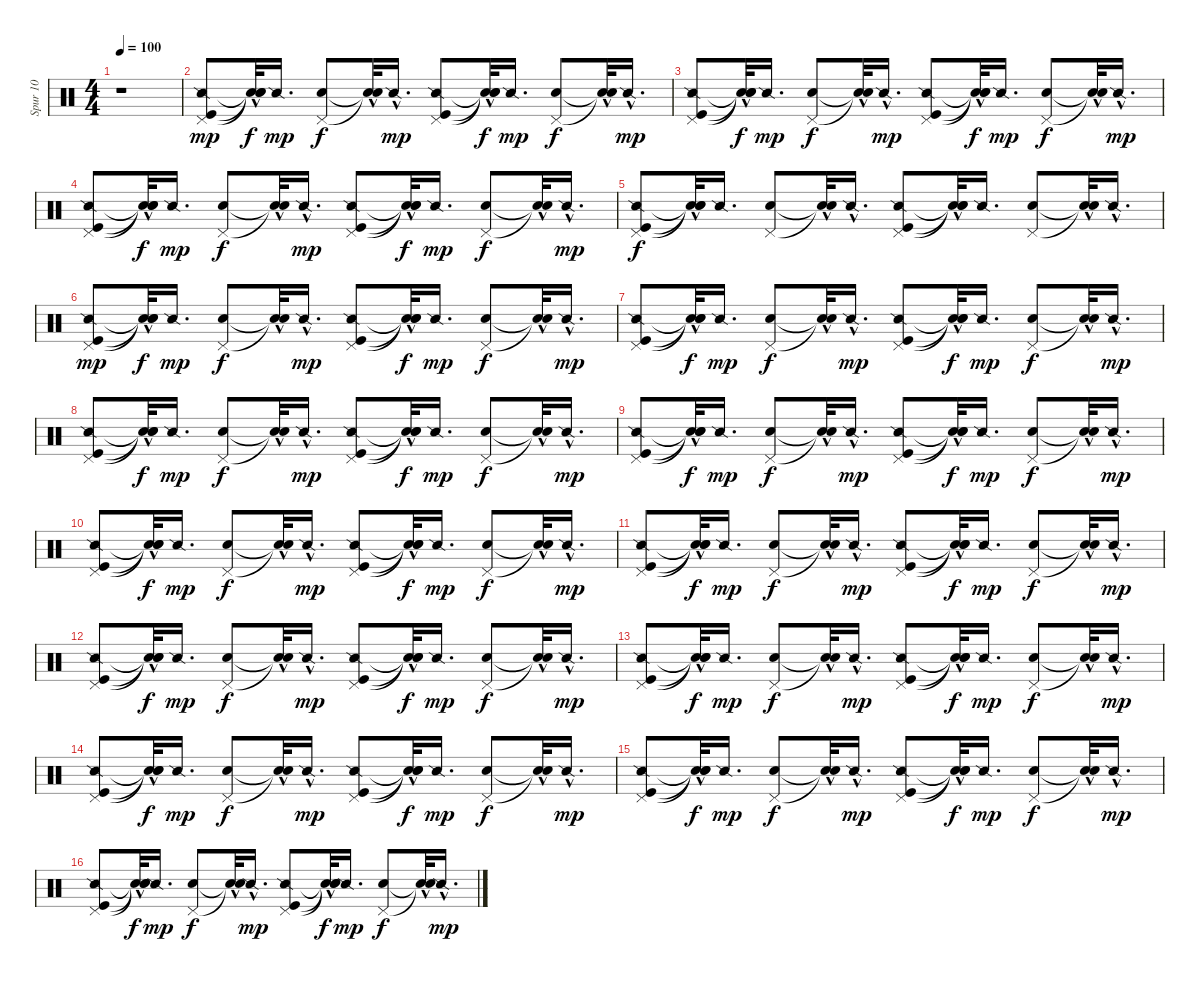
\track ("Spur 10" "Spur 10") {instrument percussion}
\staff {score}
\articulation defaults
\ts (4 4)
\tempo 100
\clef neutral
\ks c
r.1{dy mp} |
("Snare (side stick) 2" "Kick (hit)" "Pedal Hi-Hat (hit)").8{volume 16} ("Snare (hit)"{t} "Snare (hit)"{hac t} "Snare (hit)"{t}).32{dy f} "Snare (side stick) 2".16{d dy mp} ("Electric Snare (hit)" "Pedal Hi-Hat (hit)").8{dy f} ("Snare (hit)"{hac t} "Snare (hit)"{t}).32 "Snare (side stick) 2"{hac}.16{d dy mp} ("Snare (side stick) 2" "Kick (hit)" "Pedal Hi-Hat (hit)").8 ("Snare (hit)"{t} "Snare (hit)"{hac t} "Snare (hit)"{t}).32{dy f} "Snare (side stick) 2".16{d dy mp} ("Electric Snare (hit)" "Pedal Hi-Hat (hit)").8{dy f} ("Snare (hit)"{hac t} "Snare (hit)"{t}).32 "Snare (side stick) 2"{hac}.16{d dy mp} |
("Snare (side stick) 2" "Kick (hit)" "Pedal Hi-Hat (hit)").8 ("Snare (hit)"{t} "Snare (hit)"{hac t} "Snare (hit)"{t}).32{dy f} "Snare (side stick) 2".16{d dy mp} ("Electric Snare (hit)" "Pedal Hi-Hat (hit)").8{dy f} ("Snare (hit)"{hac t} "Snare (hit)"{t}).32 "Snare (side stick) 2"{hac}.16{d dy mp} ("Snare (side stick) 2" "Kick (hit)" "Pedal Hi-Hat (hit)").8 ("Snare (hit)"{t} "Snare (hit)"{hac t} "Snare (hit)"{t}).32{dy f} "Snare (side stick) 2".16{d dy mp} ("Electric Snare (hit)" "Pedal Hi-Hat (hit)").8{dy f} ("Snare (hit)"{hac t} "Snare (hit)"{t}).32 "Snare (side stick) 2"{hac}.16{d dy mp} |
("Snare (side stick) 2" "Kick (hit)" "Pedal Hi-Hat (hit)").8 ("Snare (hit)"{t} "Snare (hit)"{hac t} "Snare (hit)"{t}).32{dy f} "Snare (side stick) 2".16{d dy mp} ("Electric Snare (hit)" "Pedal Hi-Hat (hit)").8{dy f} ("Snare (hit)"{hac t} "Snare (hit)"{t}).32 "Snare (side stick) 2"{hac}.16{d dy mp} ("Snare (side stick) 2" "Kick (hit)" "Pedal Hi-Hat (hit)").8 ("Snare (hit)"{t} "Snare (hit)"{hac t} "Snare (hit)"{t}).32{dy f} "Snare (side stick) 2".16{d dy mp} ("Electric Snare (hit)" "Pedal Hi-Hat (hit)").8{dy f} ("Snare (hit)"{hac t} "Snare (hit)"{t}).32 "Snare (side stick) 2"{hac}.16{d dy mp} |
("Snare (side stick) 2" "Kick (hit)" "Pedal Hi-Hat (hit)").8{dy f} ("Snare (hit)"{t} "Snare (hit)"{hac t} "Snare (hit)"{t}).32 "Snare (side stick) 2".16{d} ("Electric Snare (hit)" "Pedal Hi-Hat (hit)").8 ("Snare (hit)"{hac t} "Snare (hit)"{t}).32 "Snare (side stick) 2"{hac}.16{d} ("Snare (side stick) 2" "Kick (hit)" "Pedal Hi-Hat (hit)").8 ("Snare (hit)"{t} "Snare (hit)"{hac t} "Snare (hit)"{t}).32 "Snare (side stick) 2".16{d} ("Electric Snare (hit)" "Pedal Hi-Hat (hit)").8 ("Snare (hit)"{hac t} "Snare (hit)"{t}).32 "Snare (side stick) 2"{hac}.16{d} |
("Snare (side stick) 2" "Kick (hit)" "Pedal Hi-Hat (hit)").8{dy mp} ("Snare (hit)"{t} "Snare (hit)"{hac t} "Snare (hit)"{t}).32{dy f} "Snare (side stick) 2".16{d dy mp} ("Electric Snare (hit)" "Pedal Hi-Hat (hit)").8{dy f} ("Snare (hit)"{hac t} "Snare (hit)"{t}).32 "Snare (side stick) 2"{hac}.16{d dy mp} ("Snare (side stick) 2" "Kick (hit)" "Pedal Hi-Hat (hit)").8 ("Snare (hit)"{t} "Snare (hit)"{hac t} "Snare (hit)"{t}).32{dy f} "Snare (side stick) 2".16{d dy mp} ("Electric Snare (hit)" "Pedal Hi-Hat (hit)").8{dy f} ("Snare (hit)"{hac t} "Snare (hit)"{t}).32 "Snare (side stick) 2"{hac}.16{d dy mp} |
("Snare (side stick) 2" "Kick (hit)" "Pedal Hi-Hat (hit)").8 ("Snare (hit)"{t} "Snare (hit)"{hac t} "Snare (hit)"{t}).32{dy f} "Snare (side stick) 2".16{d dy mp} ("Electric Snare (hit)" "Pedal Hi-Hat (hit)").8{dy f} ("Snare (hit)"{hac t} "Snare (hit)"{t}).32 "Snare (side stick) 2"{hac}.16{d dy mp} ("Snare (side stick) 2" "Kick (hit)" "Pedal Hi-Hat (hit)").8 ("Snare (hit)"{t} "Snare (hit)"{hac t} "Snare (hit)"{t}).32{dy f} "Snare (side stick) 2".16{d dy mp} ("Electric Snare (hit)" "Pedal Hi-Hat (hit)").8{dy f} ("Snare (hit)"{hac t} "Snare (hit)"{t}).32 "Snare (side stick) 2"{hac}.16{d dy mp} |
("Snare (side stick) 2" "Kick (hit)" "Pedal Hi-Hat (hit)").8 ("Snare (hit)"{t} "Snare (hit)"{hac t} "Snare (hit)"{t}).32{dy f} "Snare (side stick) 2".16{d dy mp} ("Electric Snare (hit)" "Pedal Hi-Hat (hit)").8{dy f} ("Snare (hit)"{hac t} "Snare (hit)"{t}).32 "Snare (side stick) 2"{hac}.16{d dy mp} ("Snare (side stick) 2" "Kick (hit)" "Pedal Hi-Hat (hit)").8 ("Snare (hit)"{t} "Snare (hit)"{hac t} "Snare (hit)"{t}).32{dy f} "Snare (side stick) 2".16{d dy mp} ("Electric Snare (hit)" "Pedal Hi-Hat (hit)").8{dy f} ("Snare (hit)"{hac t} "Snare (hit)"{t}).32 "Snare (side stick) 2"{hac}.16{d dy mp} |
("Snare (side stick) 2" "Kick (hit)" "Pedal Hi-Hat (hit)").8 ("Snare (hit)"{t} "Snare (hit)"{hac t} "Snare (hit)"{t}).32{dy f} "Snare (side stick) 2".16{d dy mp} ("Electric Snare (hit)" "Pedal Hi-Hat (hit)").8{dy f} ("Snare (hit)"{hac t} "Snare (hit)"{t}).32 "Snare (side stick) 2"{hac}.16{d dy mp} ("Snare (side stick) 2" "Kick (hit)" "Pedal Hi-Hat (hit)").8 ("Snare (hit)"{t} "Snare (hit)"{hac t} "Snare (hit)"{t}).32{dy f} "Snare (side stick) 2".16{d dy mp} ("Electric Snare (hit)" "Pedal Hi-Hat (hit)").8{dy f} ("Snare (hit)"{hac t} "Snare (hit)"{t}).32 "Snare (side stick) 2"{hac}.16{d dy mp} |
("Snare (side stick) 2" "Kick (hit)" "Pedal Hi-Hat (hit)").8 ("Snare (hit)"{t} "Snare (hit)"{hac t} "Snare (hit)"{t}).32{dy f} "Snare (side stick) 2".16{d dy mp} ("Electric Snare (hit)" "Pedal Hi-Hat (hit)").8{dy f} ("Snare (hit)"{hac t} "Snare (hit)"{t}).32 "Snare (side stick) 2"{hac}.16{d dy mp} ("Snare (side stick) 2" "Kick (hit)" "Pedal Hi-Hat (hit)").8 ("Snare (hit)"{t} "Snare (hit)"{hac t} "Snare (hit)"{t}).32{dy f} "Snare (side stick) 2".16{d dy mp} ("Electric Snare (hit)" "Pedal Hi-Hat (hit)").8{dy f} ("Snare (hit)"{hac t} "Snare (hit)"{t}).32 "Snare (side stick) 2"{hac}.16{d dy mp} |
("Snare (side stick) 2" "Kick (hit)" "Pedal Hi-Hat (hit)").8 ("Snare (hit)"{t} "Snare (hit)"{hac t} "Snare (hit)"{t}).32{dy f} "Snare (side stick) 2".16{d dy mp} ("Electric Snare (hit)" "Pedal Hi-Hat (hit)").8{dy f} ("Snare (hit)"{hac t} "Snare (hit)"{t}).32 "Snare (side stick) 2"{hac}.16{d dy mp} ("Snare (side stick) 2" "Kick (hit)" "Pedal Hi-Hat (hit)").8 ("Snare (hit)"{t} "Snare (hit)"{hac t} "Snare (hit)"{t}).32{dy f} "Snare (side stick) 2".16{d dy mp} ("Electric Snare (hit)" "Pedal Hi-Hat (hit)").8{dy f} ("Snare (hit)"{hac t} "Snare (hit)"{t}).32 "Snare (side stick) 2"{hac}.16{d dy mp} |
("Snare (side stick) 2" "Kick (hit)" "Pedal Hi-Hat (hit)").8 ("Snare (hit)"{t} "Snare (hit)"{hac t} "Snare (hit)"{t}).32{dy f} "Snare (side stick) 2".16{d dy mp} ("Electric Snare (hit)" "Pedal Hi-Hat (hit)").8{dy f} ("Snare (hit)"{hac t} "Snare (hit)"{t}).32 "Snare (side stick) 2"{hac}.16{d dy mp} ("Snare (side stick) 2" "Kick (hit)" "Pedal Hi-Hat (hit)").8 ("Snare (hit)"{t} "Snare (hit)"{hac t} "Snare (hit)"{t}).32{dy f} "Snare (side stick) 2".16{d dy mp} ("Electric Snare (hit)" "Pedal Hi-Hat (hit)").8{dy f} ("Snare (hit)"{hac t} "Snare (hit)"{t}).32 "Snare (side stick) 2"{hac}.16{d dy mp} |
("Snare (side stick) 2" "Kick (hit)" "Pedal Hi-Hat (hit)").8 ("Snare (hit)"{t} "Snare (hit)"{hac t} "Snare (hit)"{t}).32{dy f} "Snare (side stick) 2".16{d dy mp} ("Electric Snare (hit)" "Pedal Hi-Hat (hit)").8{dy f} ("Snare (hit)"{hac t} "Snare (hit)"{t}).32 "Snare (side stick) 2"{hac}.16{d dy mp} ("Snare (side stick) 2" "Kick (hit)" "Pedal Hi-Hat (hit)").8 ("Snare (hit)"{t} "Snare (hit)"{hac t} "Snare (hit)"{t}).32{dy f} "Snare (side stick) 2".16{d dy mp} ("Electric Snare (hit)" "Pedal Hi-Hat (hit)").8{dy f} ("Snare (hit)"{hac t} "Snare (hit)"{t}).32 "Snare (side stick) 2"{hac}.16{d dy mp} |
("Snare (side stick) 2" "Kick (hit)" "Pedal Hi-Hat (hit)").8 ("Snare (hit)"{t} "Snare (hit)"{hac t} "Snare (hit)"{t}).32{dy f} "Snare (side stick) 2".16{d dy mp} ("Electric Snare (hit)" "Pedal Hi-Hat (hit)").8{dy f} ("Snare (hit)"{hac t} "Snare (hit)"{t}).32 "Snare (side stick) 2"{hac}.16{d dy mp} ("Snare (side stick) 2" "Kick (hit)" "Pedal Hi-Hat (hit)").8 ("Snare (hit)"{t} "Snare (hit)"{hac t} "Snare (hit)"{t}).32{dy f} "Snare (side stick) 2".16{d dy mp} ("Electric Snare (hit)" "Pedal Hi-Hat (hit)").8{dy f} ("Snare (hit)"{hac t} "Snare (hit)"{t}).32 "Snare (side stick) 2"{hac}.16{d dy mp} |
("Snare (side stick) 2" "Kick (hit)" "Pedal Hi-Hat (hit)").8 ("Snare (hit)"{t} "Snare (hit)"{hac t} "Snare (hit)"{t}).32{dy f} "Snare (side stick) 2".16{d dy mp} ("Electric Snare (hit)" "Pedal Hi-Hat (hit)").8{dy f} ("Snare (hit)"{hac t} "Snare (hit)"{t}).32 "Snare (side stick) 2"{hac}.16{d dy mp} ("Snare (side stick) 2" "Kick (hit)" "Pedal Hi-Hat (hit)").8 ("Snare (hit)"{t} "Snare (hit)"{hac t} "Snare (hit)"{t}).32{dy f} "Snare (side stick) 2".16{d dy mp} ("Electric Snare (hit)" "Pedal Hi-Hat (hit)").8{dy f} ("Snare (hit)"{hac t} "Snare (hit)"{t}).32 "Snare (side stick) 2"{hac}.16{d dy mp} |
("Snare (side stick) 2" "Kick (hit)" "Pedal Hi-Hat (hit)").8 ("Snare (hit)"{t} "Snare (hit)"{hac t} "Snare (hit)"{t}).32{dy f} "Snare (side stick) 2".16{d dy mp} ("Electric Snare (hit)" "Pedal Hi-Hat (hit)").8{dy f} ("Snare (hit)"{hac t} "Snare (hit)"{t}).32 "Snare (side stick) 2"{hac}.16{d dy mp} ("Snare (side stick) 2" "Kick (hit)" "Pedal Hi-Hat (hit)").8 ("Snare (hit)"{t} "Snare (hit)"{hac t} "Snare (hit)"{t}).32{dy f} "Snare (side stick) 2".16{d dy mp} ("Electric Snare (hit)" "Pedal Hi-Hat (hit)").8{dy f} ("Snare (hit)"{hac t} "Snare (hit)"{t}).32 "Snare (side stick) 2"{hac}.16{d dy mp}
